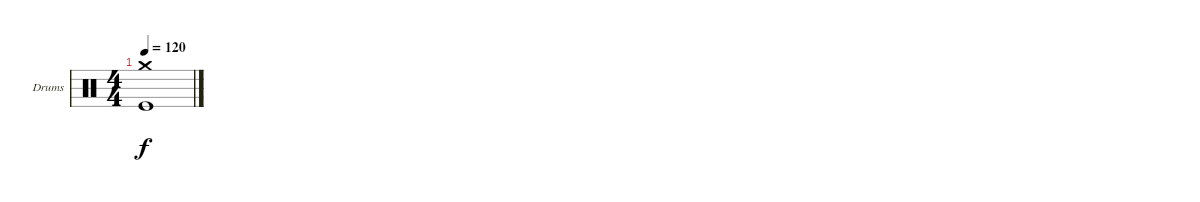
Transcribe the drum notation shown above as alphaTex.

\bracketExtendMode groupsimilarinstruments
\firstSystemTrackNameOrientation horizontal
\otherSystemsTrackNameOrientation horizontal
\track ("Drumkit" "Drums") {instrument percussion}
\staff {score}
\articulation defaults
\ts (4 4)
\tempo 120
\clef neutral
\ks c
("Crash medium (hit)" "Kick (hit)").1{dy f}
